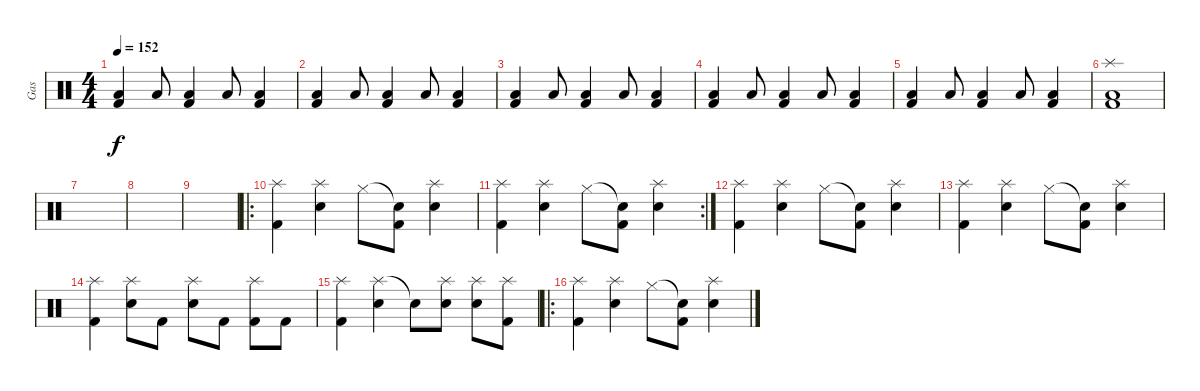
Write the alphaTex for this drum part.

\track ("Gas" "Gas") {instrument percussion}
\staff {score}
\articulation defaults
\ts (4 4)
\tempo 152
\clef neutral
\ks c
("Low Tom (hit)" "Kick (hit) 2").4{dy f} "Low Tom (hit)".8 ("Low Tom (hit)" "Kick (hit) 2").4 "Low Tom (hit)".8 ("Low Tom (hit)" "Kick (hit) 2").4 |
("Low Tom (hit)" "Kick (hit) 2").4 "Low Tom (hit)".8 ("Low Tom (hit)" "Kick (hit) 2").4 "Low Tom (hit)".8 ("Low Tom (hit)" "Kick (hit) 2").4 |
("Low Tom (hit)" "Kick (hit) 2").4 "Low Tom (hit)".8 ("Low Tom (hit)" "Kick (hit) 2").4 "Low Tom (hit)".8 ("Low Tom (hit)" "Kick (hit) 2").4 |
("Low Tom (hit)" "Kick (hit) 2").4 "Low Tom (hit)".8 ("Low Tom (hit)" "Kick (hit) 2").4 "Low Tom (hit)".8 ("Low Tom (hit)" "Kick (hit) 2").4 |
("Low Tom (hit)" "Kick (hit) 2").4 "Low Tom (hit)".8 ("Low Tom (hit)" "Kick (hit) 2").4 "Low Tom (hit)".8 ("Low Tom (hit)" "Kick (hit) 2").4 |
("Splash (hit)" "Low Tom (hit)" "Kick (hit) 2").1 |
|
|
|
\ro
("Splash (hit)" "Kick (hit) 2").4 ("Splash (hit)" "Electric Snare (hit)").4 "Hi-Hat (closed)".8 ("Snare (hit)"{t} "Kick (hit) 2").8 ("Splash (hit)" "Electric Snare (hit)").4 |
\rc 2
("Splash (hit)" "Kick (hit) 2").4 ("Splash (hit)" "Electric Snare (hit)").4 "Hi-Hat (closed)".8 ("Snare (hit)"{t} "Kick (hit) 2").8 ("Splash (hit)" "Electric Snare (hit)").4 |
("Splash (hit)" "Kick (hit) 2").4 ("Splash (hit)" "Electric Snare (hit)").4 "Hi-Hat (closed)".8 ("Snare (hit)"{t} "Kick (hit) 2").8 ("Splash (hit)" "Electric Snare (hit)").4 |
("Splash (hit)" "Kick (hit) 2").4 ("Splash (hit)" "Electric Snare (hit)").4 "Hi-Hat (closed)".8 ("Snare (hit)"{t} "Kick (hit) 2").8 ("Splash (hit)" "Electric Snare (hit)").4 |
("Splash (hit)" "Kick (hit) 2").4 ("Splash (hit)" "Electric Snare (hit)").8 "Kick (hit) 2".8 ("Splash (hit)" "Electric Snare (hit)").8 "Kick (hit) 2".8 ("Splash (hit)" "Kick (hit) 2").8 "Kick (hit) 2".8 |
("Splash (hit)" "Kick (hit) 2").4 ("Splash (hit)" "Electric Snare (hit)").4 "Electric Snare (hit)"{t}.8 ("Splash (hit)" "Electric Snare (hit)").8 ("Splash (hit)" "Electric Snare (hit)").8 ("Splash (hit)" "Kick (hit) 2").8 |
\ro
("Splash (hit)" "Kick (hit) 2").4 ("Splash (hit)" "Electric Snare (hit)").4 "Hi-Hat (closed)".8 ("Snare (hit)"{t} "Kick (hit) 2").8 ("Splash (hit)" "Electric Snare (hit)").4
